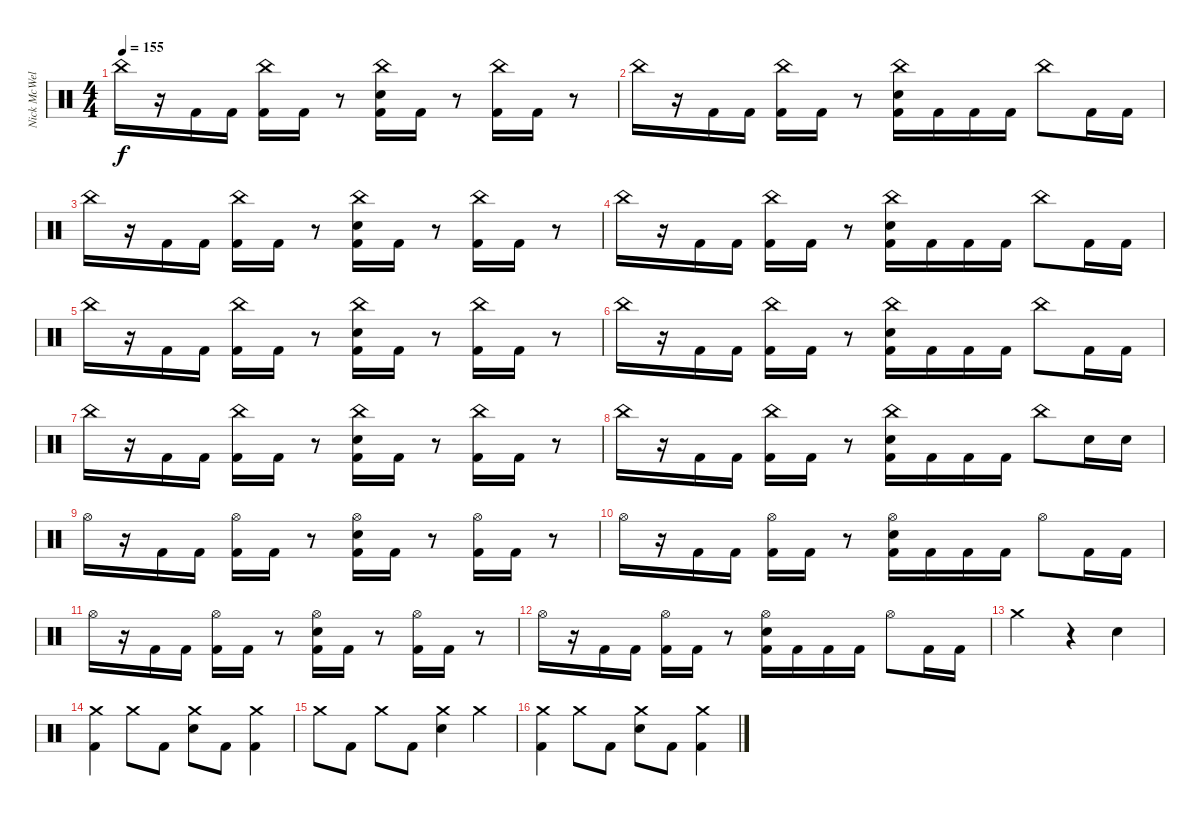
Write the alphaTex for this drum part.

\track ("Nick McWells" "Nick McWel") {instrument percussion}
\staff {score}
\articulation defaults
\ts (4 4)
\tempo 155
\clef neutral
\ks c "China (hit)".16{dy f}
r.16 "Kick (hit) 2".16 "Kick (hit) 2".16 ("China (hit)" "Kick (hit) 2").16 "Kick (hit) 2".16 r.8 ("China (hit)" "Electric Snare (hit)" "Kick (hit) 2").16 "Kick (hit) 2".16 r.8 ("China (hit)" "Kick (hit) 2").16 "Kick (hit) 2".16 r.8 |
"China (hit)".16 r.16 "Kick (hit) 2".16 "Kick (hit) 2".16 ("China (hit)" "Kick (hit) 2").16 "Kick (hit) 2".16 r.8 ("China (hit)" "Electric Snare (hit)" "Kick (hit) 2").16 "Kick (hit) 2".16 "Kick (hit) 2".16 "Kick (hit) 2".16 "China (hit)".8 "Kick (hit) 2".16 "Kick (hit) 2".16 |
"China (hit)".16 r.16 "Kick (hit) 2".16 "Kick (hit) 2".16 ("China (hit)" "Kick (hit) 2").16 "Kick (hit) 2".16 r.8 ("China (hit)" "Electric Snare (hit)" "Kick (hit) 2").16 "Kick (hit) 2".16 r.8 ("China (hit)" "Kick (hit) 2").16 "Kick (hit) 2".16 r.8 |
"China (hit)".16 r.16 "Kick (hit) 2".16 "Kick (hit) 2".16 ("China (hit)" "Kick (hit) 2").16 "Kick (hit) 2".16 r.8 ("China (hit)" "Electric Snare (hit)" "Kick (hit) 2").16 "Kick (hit) 2".16 "Kick (hit) 2".16 "Kick (hit) 2".16 "China (hit)".8 "Kick (hit) 2".16 "Kick (hit) 2".16 |
"China (hit)".16 r.16 "Kick (hit) 2".16 "Kick (hit) 2".16 ("China (hit)" "Kick (hit) 2").16 "Kick (hit) 2".16 r.8 ("China (hit)" "Electric Snare (hit)" "Kick (hit) 2").16 "Kick (hit) 2".16 r.8 ("China (hit)" "Kick (hit) 2").16 "Kick (hit) 2".16 r.8 |
"China (hit)".16 r.16 "Kick (hit) 2".16 "Kick (hit) 2".16 ("China (hit)" "Kick (hit) 2").16 "Kick (hit) 2".16 r.8 ("China (hit)" "Electric Snare (hit)" "Kick (hit) 2").16 "Kick (hit) 2".16 "Kick (hit) 2".16 "Kick (hit) 2".16 "China (hit)".8 "Kick (hit) 2".16 "Kick (hit) 2".16 |
"China (hit)".16 r.16 "Kick (hit) 2".16 "Kick (hit) 2".16 ("China (hit)" "Kick (hit) 2").16 "Kick (hit) 2".16 r.8 ("China (hit)" "Electric Snare (hit)" "Kick (hit) 2").16 "Kick (hit) 2".16 r.8 ("China (hit)" "Kick (hit) 2").16 "Kick (hit) 2".16 r.8 |
"China (hit)".16 r.16 "Kick (hit) 2".16 "Kick (hit) 2".16 ("China (hit)" "Kick (hit) 2").16 "Kick (hit) 2".16 r.8 ("China (hit)" "Electric Snare (hit)" "Kick (hit) 2").16 "Kick (hit) 2".16 "Kick (hit) 2".16 "Kick (hit) 2".16 "China (hit)".8 "Electric Snare (hit)".16 "Electric Snare (hit)".16 |
"Hi-Hat (open)".16 r.16 "Kick (hit) 2".16 "Kick (hit) 2".16 ("Hi-Hat (open)" "Kick (hit) 2").16 "Kick (hit) 2".16 r.8 ("Hi-Hat (open)" "Electric Snare (hit)" "Kick (hit) 2").16 "Kick (hit) 2".16 r.8 ("Hi-Hat (open)" "Kick (hit) 2").16 "Kick (hit) 2".16 r.8 |
"Hi-Hat (open)".16 r.16 "Kick (hit) 2".16 "Kick (hit) 2".16 ("Hi-Hat (open)" "Kick (hit) 2").16 "Kick (hit) 2".16 r.8 ("Hi-Hat (open)" "Electric Snare (hit)" "Kick (hit) 2").16 "Kick (hit) 2".16 "Kick (hit) 2".16 "Kick (hit) 2".16 "Hi-Hat (open)".8 "Kick (hit) 2".16 "Kick (hit) 2".16 |
"Hi-Hat (open)".16 r.16 "Kick (hit) 2".16 "Kick (hit) 2".16 ("Hi-Hat (open)" "Kick (hit) 2").16 "Kick (hit) 2".16 r.8 ("Hi-Hat (open)" "Electric Snare (hit)" "Kick (hit) 2").16 "Kick (hit) 2".16 r.8 ("Hi-Hat (open)" "Kick (hit) 2").16 "Kick (hit) 2".16 r.8 |
"Hi-Hat (open)".16 r.16 "Kick (hit) 2".16 "Kick (hit) 2".16 ("Hi-Hat (open)" "Kick (hit) 2").16 "Kick (hit) 2".16 r.8 ("Hi-Hat (open)" "Electric Snare (hit)" "Kick (hit) 2").16 "Kick (hit) 2".16 "Kick (hit) 2".16 "Kick (hit) 2".16 "Hi-Hat (open)".8 "Kick (hit) 2".16 "Kick (hit) 2".16 |
"Crash medium (hit)".2 r.4 "Electric Snare (hit)".4 |
("Crash medium (hit)" "Kick (hit) 2").4 "Crash medium (hit)".8 "Kick (hit) 2".8 ("Crash medium (hit)" "Electric Snare (hit)").8 "Kick (hit) 2".8 ("Crash medium (hit)" "Kick (hit) 2").4 |
"Crash medium (hit)".8 "Kick (hit) 2".8 "Crash medium (hit)".8 "Kick (hit) 2".8 ("Crash medium (hit)" "Electric Snare (hit)").4 "Crash medium (hit)".4 |
("Crash medium (hit)" "Kick (hit) 2").4 "Crash medium (hit)".8 "Kick (hit) 2".8 ("Crash medium (hit)" "Electric Snare (hit)").8 "Kick (hit) 2".8 ("Crash medium (hit)" "Kick (hit) 2").4
